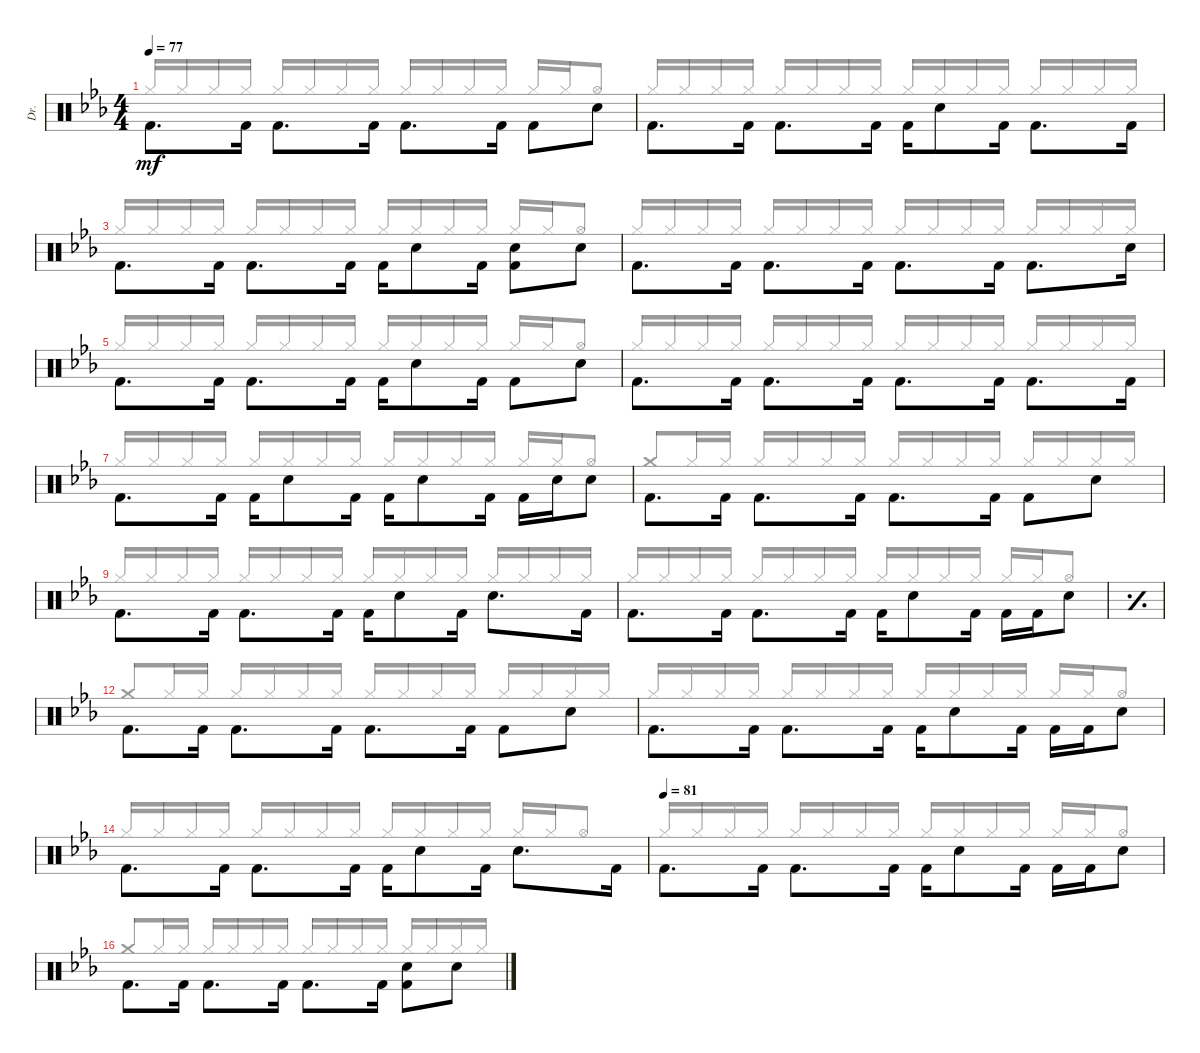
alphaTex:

\bracketExtendMode groupsimilarinstruments
\otherSystemsTrackNameOrientation horizontal
\defaultBarNumberDisplay FirstOfSystem
\track ("Drums" "Dr.") {multiBarRest instrument percussion}
\staff {score}
\articulation defaults
\voice
\ts (4 4)
\tempo 77
\clef neutral
\ks eb "Kick (hit) 2"{acc forcenatural}.8{d dy mf beam Down} "Kick (hit) 2"{acc forcenatural}.16{beam Down} "Kick (hit) 2"{acc forcenatural}.8{d beam Down} "Kick (hit) 2"{acc forcenatural}.16{beam Down} "Kick (hit) 2"{acc forcenatural}.8{d beam Down} "Kick (hit) 2"{acc forcenatural}.16{beam Down} "Kick (hit) 2"{acc forcenatural}.8{beam Down} "Snare (hit) 2"{acc forcenatural}.8{beam Down}
|
"Kick (hit) 2"{acc forcenatural}.8{d beam Down} "Kick (hit) 2"{acc forcenatural}.16{beam Down} "Kick (hit) 2"{acc forcenatural}.8{d beam Down} "Kick (hit) 2"{acc forcenatural}.16{beam Down} "Kick (hit) 2"{acc forcenatural}.16{beam Down} "Snare (hit) 2"{acc forcenatural}.8{beam Down} "Kick (hit) 2"{acc forcenatural}.16{beam Down} "Kick (hit) 2"{acc forcenatural}.8{d beam Down} "Kick (hit) 2"{acc forcenatural}.16{beam Down} |
"Kick (hit) 2"{acc forcenatural}.8{d beam Down} "Kick (hit) 2"{acc forcenatural}.16{beam Down} "Kick (hit) 2"{acc forcenatural}.8{d beam Down} "Kick (hit) 2"{acc forcenatural}.16{beam Down} "Kick (hit) 2"{acc forcenatural}.16{beam Down} "Snare (hit) 2"{acc forcenatural}.8{beam Down} "Kick (hit) 2"{acc forcenatural}.16{beam Down} ("Snare (hit) 2"{acc forcenatural} "Kick (hit) 2"{acc forcenatural}).8{beam Down} "Snare (hit) 2"{acc forcenatural}.8{beam Down} |
"Kick (hit) 2"{acc forcenatural}.8{d beam Down} "Kick (hit) 2"{acc forcenatural}.16{beam Down} "Kick (hit) 2"{acc forcenatural}.8{d beam Down} "Kick (hit) 2"{acc forcenatural}.16{beam Down} "Kick (hit) 2"{acc forcenatural}.8{d beam Down} "Kick (hit) 2"{acc forcenatural}.16{beam Down} "Kick (hit) 2"{acc forcenatural}.8{d beam Down} "Snare (hit) 2"{acc forcenatural}.16{beam Down} |
"Kick (hit) 2"{acc forcenatural}.8{d beam Down} "Kick (hit) 2"{acc forcenatural}.16{beam Down} "Kick (hit) 2"{acc forcenatural}.8{d beam Down} "Kick (hit) 2"{acc forcenatural}.16{beam Down} "Kick (hit) 2"{acc forcenatural}.16{beam Down} "Snare (hit) 2"{acc forcenatural}.8{beam Down} "Kick (hit) 2"{acc forcenatural}.16{beam Down} "Kick (hit) 2"{acc forcenatural}.8{beam Down} "Snare (hit) 2"{acc forcenatural}.8{beam Down} |
"Kick (hit) 2"{acc forcenatural}.8{d beam Down} "Kick (hit) 2"{acc forcenatural}.16{beam Down} "Kick (hit) 2"{acc forcenatural}.8{d beam Down} "Kick (hit) 2"{acc forcenatural}.16{beam Down} "Kick (hit) 2"{acc forcenatural}.8{d beam Down} "Kick (hit) 2"{acc forcenatural}.16{beam Down} "Kick (hit) 2"{acc forcenatural}.8{d beam Down} "Kick (hit) 2"{acc forcenatural}.16{beam Down} |
"Kick (hit) 2"{acc forcenatural}.8{d beam Down} "Kick (hit) 2"{acc forcenatural}.16{beam Down} "Kick (hit) 2"{acc forcenatural}.16{beam Down} "Snare (hit) 2"{acc forcenatural}.8{beam Down} "Kick (hit) 2"{acc forcenatural}.16{beam Down} "Kick (hit) 2"{acc forcenatural}.16{beam Down} "Snare (hit) 2"{acc forcenatural}.8{beam Down} "Kick (hit) 2"{acc forcenatural}.16{beam Down} "Kick (hit) 2"{acc forcenatural}.16{beam Down} "Snare (hit) 2"{acc forcenatural}.16{beam Down} "Snare (hit) 2"{acc forcenatural}.8{beam Down} |
"Kick (hit) 2"{acc forcenatural}.8{d beam Down} "Kick (hit) 2"{acc forcenatural}.16{beam Down} "Kick (hit) 2"{acc forcenatural}.8{d beam Down} "Kick (hit) 2"{acc forcenatural}.16{beam Down} "Kick (hit) 2"{acc forcenatural}.8{d beam Down} "Kick (hit) 2"{acc forcenatural}.16{beam Down} "Kick (hit) 2"{acc forcenatural}.8{beam Down} "Snare (hit) 2"{acc forcenatural}.8{beam Down} |
"Kick (hit) 2"{acc forcenatural}.8{d beam Down} "Kick (hit) 2"{acc forcenatural}.16{beam Down} "Kick (hit) 2"{acc forcenatural}.8{d beam Down} "Kick (hit) 2"{acc forcenatural}.16{beam Down} "Kick (hit) 2"{acc forcenatural}.16{beam Down} "Snare (hit) 2"{acc forcenatural}.8{beam Down} "Kick (hit) 2"{acc forcenatural}.16{beam Down} "Snare (hit) 2"{acc forcenatural}.8{d beam Down} "Kick (hit) 2"{acc forcenatural}.16{beam Down} |
"Kick (hit) 2"{acc forcenatural}.8{d beam Down} "Kick (hit) 2"{acc forcenatural}.16{beam Down} "Kick (hit) 2"{acc forcenatural}.8{d beam Down} "Kick (hit) 2"{acc forcenatural}.16{beam Down} "Kick (hit) 2"{acc forcenatural}.16{beam Down} "Snare (hit) 2"{acc forcenatural}.8{beam Down} "Kick (hit) 2"{acc forcenatural}.16{beam Down} "Kick (hit) 2"{acc forcenatural}.16{beam Down} "Kick (hit) 2"{acc forcenatural}.16{beam Down} "Snare (hit) 2"{acc forcenatural}.8{beam Down} |
\simile simple
|
\simile none "Kick (hit) 2"{acc forcenatural}.8{d beam Down} "Kick (hit) 2"{acc forcenatural}.16{beam Down} "Kick (hit) 2"{acc forcenatural}.8{d beam Down} "Kick (hit) 2"{acc forcenatural}.16{beam Down} "Kick (hit) 2"{acc forcenatural}.8{d beam Down} "Kick (hit) 2"{acc forcenatural}.16{beam Down} "Kick (hit) 2"{acc forcenatural}.8{beam Down} "Snare (hit) 2"{acc forcenatural}.8{beam Down}
|
"Kick (hit) 2"{acc forcenatural}.8{d beam Down} "Kick (hit) 2"{acc forcenatural}.16{beam Down} "Kick (hit) 2"{acc forcenatural}.8{d beam Down} "Kick (hit) 2"{acc forcenatural}.16{beam Down} "Kick (hit) 2"{acc forcenatural}.16{beam Down} "Snare (hit) 2"{acc forcenatural}.8{beam Down} "Kick (hit) 2"{acc forcenatural}.16{beam Down} "Kick (hit) 2"{acc forcenatural}.16{beam Down} "Kick (hit) 2"{acc forcenatural}.16{beam Down} "Snare (hit) 2"{acc forcenatural}.8{beam Down} |
"Kick (hit) 2"{acc forcenatural}.8{d beam Down} "Kick (hit) 2"{acc forcenatural}.16{beam Down} "Kick (hit) 2"{acc forcenatural}.8{d beam Down} "Kick (hit) 2"{acc forcenatural}.16{beam Down} "Kick (hit) 2"{acc forcenatural}.16{beam Down} "Snare (hit) 2"{acc forcenatural}.8{beam Down} "Kick (hit) 2"{acc forcenatural}.16{beam Down} "Snare (hit) 2"{acc forcenatural}.8{d beam Down} "Kick (hit) 2"{acc forcenatural}.16{beam Down} |
\tempo (81)
"Kick (hit) 2"{acc forcenatural}.8{d beam Down} "Kick (hit) 2"{acc forcenatural}.16{beam Down} "Kick (hit) 2"{acc forcenatural}.8{d beam Down} "Kick (hit) 2"{acc forcenatural}.16{beam Down} "Kick (hit) 2"{acc forcenatural}.16{beam Down} "Snare (hit) 2"{acc forcenatural}.8{beam Down} "Kick (hit) 2"{acc forcenatural}.16{beam Down} "Kick (hit) 2"{acc forcenatural}.16{beam Down} "Kick (hit) 2"{acc forcenatural}.16{beam Down} "Snare (hit) 2"{acc forcenatural}.8{beam Down} |
"Kick (hit) 2"{acc forcenatural}.8{d beam Down} "Kick (hit) 2"{acc forcenatural}.16{beam Down} "Kick (hit) 2"{acc forcenatural}.8{d beam Down} "Kick (hit) 2"{acc forcenatural}.16{beam Down} "Kick (hit) 2"{acc forcenatural}.8{d beam Down} "Kick (hit) 2"{acc forcenatural}.16{beam Down} ("Kick (hit) 2"{acc forcenatural} "Snare (hit) 2"{acc forcenatural}).8{beam Down} "Snare (hit) 2"{acc forcenatural}.8{beam Down}
\voice
\clef neutral
\ottava regular
\simile none
\ks eb "Hi-Hat (closed)"{acc forcenatural}.16{dy mf beam Up} "Hi-Hat (closed)"{acc forcenatural}.16{beam Up} "Hi-Hat (closed)"{acc forcenatural}.16{beam Up} "Hi-Hat (closed)"{acc forcenatural}.16{beam Up} "Hi-Hat (closed)"{acc forcenatural}.16{beam Up} "Hi-Hat (closed)"{acc forcenatural}.16{beam Up} "Hi-Hat (closed)"{acc forcenatural}.16{beam Up} "Hi-Hat (closed)"{acc forcenatural}.16{beam Up} "Hi-Hat (closed)"{acc forcenatural}.16{beam Up} "Hi-Hat (closed)"{acc forcenatural}.16{beam Up} "Hi-Hat (closed)"{acc forcenatural}.16{beam Up} "Hi-Hat (closed)"{acc forcenatural}.16{beam Up} "Hi-Hat (closed)"{acc forcenatural}.16{beam Up} "Hi-Hat (closed)"{acc forcenatural}.16{beam Up} "Hi-Hat (open)"{acc forcenatural}.8{beam Up}
|
"Hi-Hat (closed)"{acc forcenatural}.16{beam Up} "Hi-Hat (closed)"{acc forcenatural}.16{beam Up} "Hi-Hat (closed)"{acc forcenatural}.16{beam Up} "Hi-Hat (closed)"{acc forcenatural}.16{beam Up} "Hi-Hat (closed)"{acc forcenatural}.16{beam Up} "Hi-Hat (closed)"{acc forcenatural}.16{beam Up} "Hi-Hat (closed)"{acc forcenatural}.16{beam Up} "Hi-Hat (closed)"{acc forcenatural}.16{beam Up} "Hi-Hat (closed)"{acc forcenatural}.16{beam Up} "Hi-Hat (closed)"{acc forcenatural}.16{beam Up} "Hi-Hat (closed)"{acc forcenatural}.16{beam Up} "Hi-Hat (closed)"{acc forcenatural}.16{beam Up} "Hi-Hat (closed)"{acc forcenatural}.16{beam Up} "Hi-Hat (closed)"{acc forcenatural}.16{beam Up} "Hi-Hat (closed)"{acc forcenatural}.16{beam Up} "Hi-Hat (closed)"{acc forcenatural}.16{beam Up} |
"Hi-Hat (closed)"{acc forcenatural}.16{beam Up} "Hi-Hat (closed)"{acc forcenatural}.16{beam Up} "Hi-Hat (closed)"{acc forcenatural}.16{beam Up} "Hi-Hat (closed)"{acc forcenatural}.16{beam Up} "Hi-Hat (closed)"{acc forcenatural}.16{beam Up} "Hi-Hat (closed)"{acc forcenatural}.16{beam Up} "Hi-Hat (closed)"{acc forcenatural}.16{beam Up} "Hi-Hat (closed)"{acc forcenatural}.16{beam Up} "Hi-Hat (closed)"{acc forcenatural}.16{beam Up} "Hi-Hat (closed)"{acc forcenatural}.16{beam Up} "Hi-Hat (closed)"{acc forcenatural}.16{beam Up} "Hi-Hat (closed)"{acc forcenatural}.16{beam Up} "Hi-Hat (closed)"{acc forcenatural}.16{beam Up} "Hi-Hat (closed)"{acc forcenatural}.16{beam Up} "Hi-Hat (open)"{acc forcenatural}.8{beam Up} |
"Hi-Hat (closed)"{acc forcenatural}.16{beam Up} "Hi-Hat (closed)"{acc forcenatural}.16{beam Up} "Hi-Hat (closed)"{acc forcenatural}.16{beam Up} "Hi-Hat (closed)"{acc forcenatural}.16{beam Up} "Hi-Hat (closed)"{acc forcenatural}.16{beam Up} "Hi-Hat (closed)"{acc forcenatural}.16{beam Up} "Hi-Hat (closed)"{acc forcenatural}.16{beam Up} "Hi-Hat (closed)"{acc forcenatural}.16{beam Up} "Hi-Hat (closed)"{acc forcenatural}.16{beam Up} "Hi-Hat (closed)"{acc forcenatural}.16{beam Up} "Hi-Hat (closed)"{acc forcenatural}.16{beam Up} "Hi-Hat (closed)"{acc forcenatural}.16{beam Up} "Hi-Hat (closed)"{acc forcenatural}.16{beam Up} "Hi-Hat (closed)"{acc forcenatural}.16{beam Up} "Hi-Hat (closed)"{acc forcenatural}.16{beam Up} "Hi-Hat (closed)"{acc forcenatural}.16{beam Up} |
"Hi-Hat (closed)"{acc forcenatural}.16{beam Up} "Hi-Hat (closed)"{acc forcenatural}.16{beam Up} "Hi-Hat (closed)"{acc forcenatural}.16{beam Up} "Hi-Hat (closed)"{acc forcenatural}.16{beam Up} "Hi-Hat (closed)"{acc forcenatural}.16{beam Up} "Hi-Hat (closed)"{acc forcenatural}.16{beam Up} "Hi-Hat (closed)"{acc forcenatural}.16{beam Up} "Hi-Hat (closed)"{acc forcenatural}.16{beam Up} "Hi-Hat (closed)"{acc forcenatural}.16{beam Up} "Hi-Hat (closed)"{acc forcenatural}.16{beam Up} "Hi-Hat (closed)"{acc forcenatural}.16{beam Up} "Hi-Hat (closed)"{acc forcenatural}.16{beam Up} "Hi-Hat (closed)"{acc forcenatural}.16{beam Up} "Hi-Hat (closed)"{acc forcenatural}.16{beam Up} "Hi-Hat (open)"{acc forcenatural}.8{beam Up} |
"Hi-Hat (closed)"{acc forcenatural}.16{beam Up} "Hi-Hat (closed)"{acc forcenatural}.16{beam Up} "Hi-Hat (closed)"{acc forcenatural}.16{beam Up} "Hi-Hat (closed)"{acc forcenatural}.16{beam Up} "Hi-Hat (closed)"{acc forcenatural}.16{beam Up} "Hi-Hat (closed)"{acc forcenatural}.16{beam Up} "Hi-Hat (closed)"{acc forcenatural}.16{beam Up} "Hi-Hat (closed)"{acc forcenatural}.16{beam Up} "Hi-Hat (closed)"{acc forcenatural}.16{beam Up} "Hi-Hat (closed)"{acc forcenatural}.16{beam Up} "Hi-Hat (closed)"{acc forcenatural}.16{beam Up} "Hi-Hat (closed)"{acc forcenatural}.16{beam Up} "Hi-Hat (closed)"{acc forcenatural}.16{beam Up} "Hi-Hat (closed)"{acc forcenatural}.16{beam Up} "Hi-Hat (closed)"{acc forcenatural}.16{beam Up} "Hi-Hat (closed)"{acc forcenatural}.16{beam Up} |
"Hi-Hat (closed)"{acc forcenatural}.16{beam Up} "Hi-Hat (closed)"{acc forcenatural}.16{beam Up} "Hi-Hat (closed)"{acc forcenatural}.16{beam Up} "Hi-Hat (closed)"{acc forcenatural}.16{beam Up} "Hi-Hat (closed)"{acc forcenatural}.16{beam Up} "Hi-Hat (closed)"{acc forcenatural}.16{beam Up} "Hi-Hat (closed)"{acc forcenatural}.16{beam Up} "Hi-Hat (closed)"{acc forcenatural}.16{beam Up} "Hi-Hat (closed)"{acc forcenatural}.16{beam Up} "Hi-Hat (closed)"{acc forcenatural}.16{beam Up} "Hi-Hat (closed)"{acc forcenatural}.16{beam Up} "Hi-Hat (closed)"{acc forcenatural}.16{beam Up} "Hi-Hat (closed)"{acc forcenatural}.16{beam Up} "Hi-Hat (closed)"{acc forcenatural}.16{beam Up} "Hi-Hat (open)"{acc forcenatural}.8{beam Up} |
"Crash medium (hit)"{acc forcenatural}.8{beam Up} "Hi-Hat (closed)"{acc forcenatural}.16{beam Up} "Hi-Hat (closed)"{acc forcenatural}.16{beam Up} "Hi-Hat (closed)"{acc forcenatural}.16{beam Up} "Hi-Hat (closed)"{acc forcenatural}.16{beam Up} "Hi-Hat (closed)"{acc forcenatural}.16{beam Up} "Hi-Hat (closed)"{acc forcenatural}.16{beam Up} "Hi-Hat (closed)"{acc forcenatural}.16{beam Up} "Hi-Hat (closed)"{acc forcenatural}.16{beam Up} "Hi-Hat (closed)"{acc forcenatural}.16{beam Up} "Hi-Hat (closed)"{acc forcenatural}.16{beam Up} "Hi-Hat (closed)"{acc forcenatural}.16{beam Up} "Hi-Hat (closed)"{acc forcenatural}.16{beam Up} "Hi-Hat (closed)"{acc forcenatural}.16{beam Up} "Hi-Hat (closed)"{acc forcenatural}.16{beam Up} |
"Hi-Hat (closed)"{acc forcenatural}.16{beam Up} "Hi-Hat (closed)"{acc forcenatural}.16{beam Up} "Hi-Hat (closed)"{acc forcenatural}.16{beam Up} "Hi-Hat (closed)"{acc forcenatural}.16{beam Up} "Hi-Hat (closed)"{acc forcenatural}.16{beam Up} "Hi-Hat (closed)"{acc forcenatural}.16{beam Up} "Hi-Hat (closed)"{acc forcenatural}.16{beam Up} "Hi-Hat (closed)"{acc forcenatural}.16{beam Up} "Hi-Hat (closed)"{acc forcenatural}.16{beam Up} "Hi-Hat (closed)"{acc forcenatural}.16{beam Up} "Hi-Hat (closed)"{acc forcenatural}.16{beam Up} "Hi-Hat (closed)"{acc forcenatural}.16{beam Up} "Hi-Hat (closed)"{acc forcenatural}.16{beam Up} "Hi-Hat (closed)"{acc forcenatural}.16{beam Up} "Hi-Hat (closed)"{acc forcenatural}.16{beam Up} "Hi-Hat (closed)"{acc forcenatural}.16{beam Up} |
"Hi-Hat (closed)"{acc forcenatural}.16{beam Up} "Hi-Hat (closed)"{acc forcenatural}.16{beam Up} "Hi-Hat (closed)"{acc forcenatural}.16{beam Up} "Hi-Hat (closed)"{acc forcenatural}.16{beam Up} "Hi-Hat (closed)"{acc forcenatural}.16{beam Up} "Hi-Hat (closed)"{acc forcenatural}.16{beam Up} "Hi-Hat (closed)"{acc forcenatural}.16{beam Up} "Hi-Hat (closed)"{acc forcenatural}.16{beam Up} "Hi-Hat (closed)"{acc forcenatural}.16{beam Up} "Hi-Hat (closed)"{acc forcenatural}.16{beam Up} "Hi-Hat (closed)"{acc forcenatural}.16{beam Up} "Hi-Hat (closed)"{acc forcenatural}.16{beam Up} "Hi-Hat (closed)"{acc forcenatural}.16{beam Up} "Hi-Hat (closed)"{acc forcenatural}.16{beam Up} "Hi-Hat (open)"{acc forcenatural}.8{beam Up} |
\simile simple
|
\simile none "Crash medium (hit)"{acc forcenatural}.8{beam Up} "Hi-Hat (closed)"{acc forcenatural}.16{beam Up} "Hi-Hat (closed)"{acc forcenatural}.16{beam Up} "Hi-Hat (closed)"{acc forcenatural}.16{beam Up} "Hi-Hat (closed)"{acc forcenatural}.16{beam Up} "Hi-Hat (closed)"{acc forcenatural}.16{beam Up} "Hi-Hat (closed)"{acc forcenatural}.16{beam Up} "Hi-Hat (closed)"{acc forcenatural}.16{beam Up} "Hi-Hat (closed)"{acc forcenatural}.16{beam Up} "Hi-Hat (closed)"{acc forcenatural}.16{beam Up} "Hi-Hat (closed)"{acc forcenatural}.16{beam Up} "Hi-Hat (closed)"{acc forcenatural}.16{beam Up} "Hi-Hat (closed)"{acc forcenatural}.16{beam Up} "Hi-Hat (closed)"{acc forcenatural}.16{beam Up} "Hi-Hat (closed)"{acc forcenatural}.16{beam Up}
|
"Hi-Hat (closed)"{acc forcenatural}.16{beam Up} "Hi-Hat (closed)"{acc forcenatural}.16{beam Up} "Hi-Hat (closed)"{acc forcenatural}.16{beam Up} "Hi-Hat (closed)"{acc forcenatural}.16{beam Up} "Hi-Hat (closed)"{acc forcenatural}.16{beam Up} "Hi-Hat (closed)"{acc forcenatural}.16{beam Up} "Hi-Hat (closed)"{acc forcenatural}.16{beam Up} "Hi-Hat (closed)"{acc forcenatural}.16{beam Up} "Hi-Hat (closed)"{acc forcenatural}.16{beam Up} "Hi-Hat (closed)"{acc forcenatural}.16{beam Up} "Hi-Hat (closed)"{acc forcenatural}.16{beam Up} "Hi-Hat (closed)"{acc forcenatural}.16{beam Up} "Hi-Hat (closed)"{acc forcenatural}.16{beam Up} "Hi-Hat (closed)"{acc forcenatural}.16{beam Up} "Hi-Hat (open)"{acc forcenatural}.8{beam Up} |
"Hi-Hat (closed)"{acc forcenatural}.16{beam Up} "Hi-Hat (closed)"{acc forcenatural}.16{beam Up} "Hi-Hat (closed)"{acc forcenatural}.16{beam Up} "Hi-Hat (closed)"{acc forcenatural}.16{beam Up} "Hi-Hat (closed)"{acc forcenatural}.16{beam Up} "Hi-Hat (closed)"{acc forcenatural}.16{beam Up} "Hi-Hat (closed)"{acc forcenatural}.16{beam Up} "Hi-Hat (closed)"{acc forcenatural}.16{beam Up} "Hi-Hat (closed)"{acc forcenatural}.16{beam Up} "Hi-Hat (closed)"{acc forcenatural}.16{beam Up} "Hi-Hat (closed)"{acc forcenatural}.16{beam Up} "Hi-Hat (closed)"{acc forcenatural}.16{beam Up} "Hi-Hat (closed)"{acc forcenatural}.16{beam Up} "Hi-Hat (closed)"{acc forcenatural}.16{beam Up} "Hi-Hat (open)"{acc forcenatural}.8{beam Up} |
"Hi-Hat (closed)"{acc forcenatural}.16{beam Up} "Hi-Hat (closed)"{acc forcenatural}.16{beam Up} "Hi-Hat (closed)"{acc forcenatural}.16{beam Up} "Hi-Hat (closed)"{acc forcenatural}.16{beam Up} "Hi-Hat (closed)"{acc forcenatural}.16{beam Up} "Hi-Hat (closed)"{acc forcenatural}.16{beam Up} "Hi-Hat (closed)"{acc forcenatural}.16{beam Up} "Hi-Hat (closed)"{acc forcenatural}.16{beam Up} "Hi-Hat (closed)"{acc forcenatural}.16{beam Up} "Hi-Hat (closed)"{acc forcenatural}.16{beam Up} "Hi-Hat (closed)"{acc forcenatural}.16{beam Up} "Hi-Hat (closed)"{acc forcenatural}.16{beam Up} "Hi-Hat (closed)"{acc forcenatural}.16{beam Up} "Hi-Hat (closed)"{acc forcenatural}.16{beam Up} "Hi-Hat (open)"{acc forcenatural}.8{beam Up} |
"Crash medium (hit)"{acc forcenatural}.8{beam Up} "Hi-Hat (closed)"{acc forcenatural}.16{beam Up} "Hi-Hat (closed)"{acc forcenatural}.16{beam Up} "Hi-Hat (closed)"{acc forcenatural}.16{beam Up} "Hi-Hat (closed)"{acc forcenatural}.16{beam Up} "Hi-Hat (closed)"{acc forcenatural}.16{beam Up} "Hi-Hat (closed)"{acc forcenatural}.16{beam Up} "Hi-Hat (closed)"{acc forcenatural}.16{beam Up} "Hi-Hat (closed)"{acc forcenatural}.16{beam Up} "Hi-Hat (closed)"{acc forcenatural}.16{beam Up} "Hi-Hat (closed)"{acc forcenatural}.16{beam Up} "Hi-Hat (closed)"{acc forcenatural}.16{beam Up} "Hi-Hat (closed)"{acc forcenatural}.16{beam Up} "Hi-Hat (closed)"{acc forcenatural}.16{beam Up} "Hi-Hat (closed)"{acc forcenatural}.16{beam Up}
